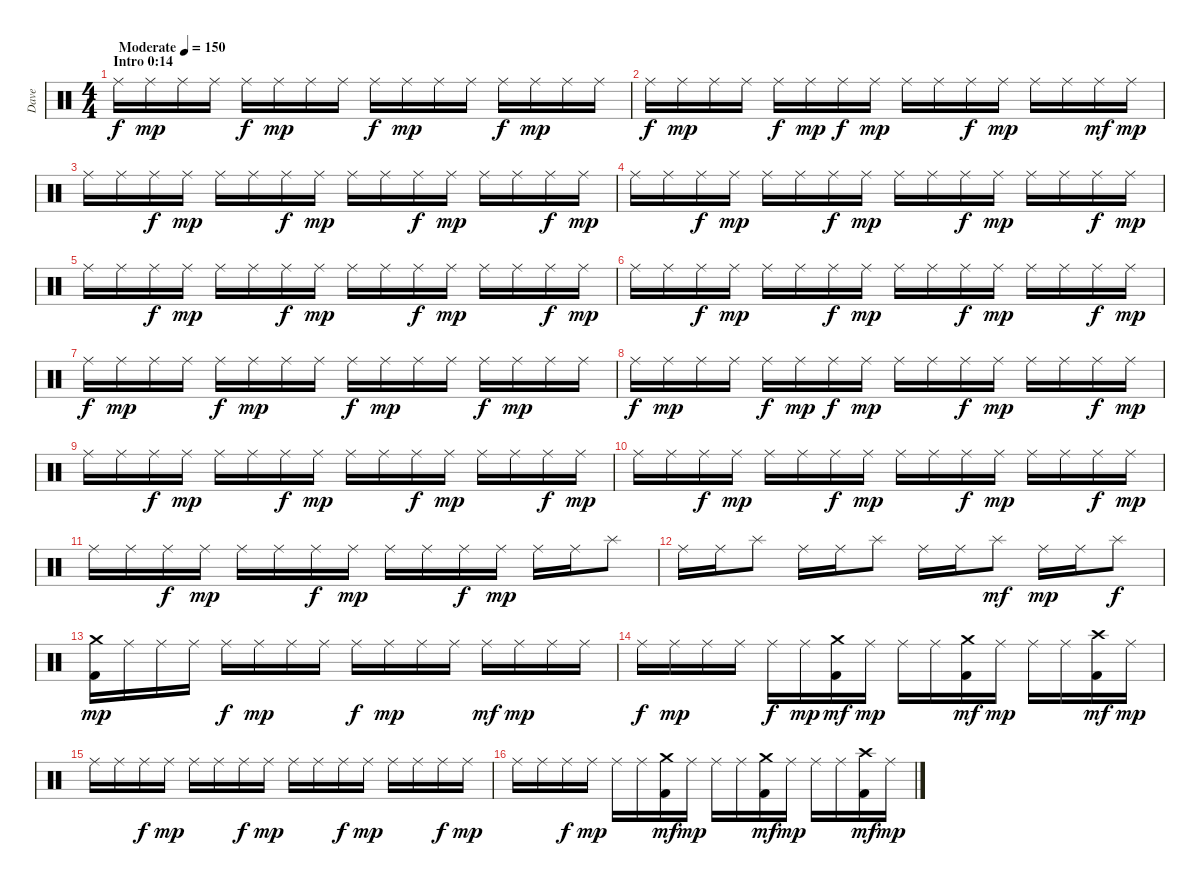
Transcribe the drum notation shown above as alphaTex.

\track ("Dave" "Dave") {instrument percussion}
\staff {score}
\articulation defaults
\ts (4 4)
\section ("" "Intro 0:14")
\tempo (150 "Moderate")
\tempo 139
\tempo (150 "Moderate")
\clef neutral
\ks c "Ride (middle)".16{dy f volume 16} "Ride (middle)".16{dy mp} "Ride (middle)".16 "Ride (middle)".16 "Ride (middle)".16{dy f} "Ride (middle)".16{dy mp} "Ride (middle)".16 "Ride (middle)".16 "Ride (middle)".16{dy f} "Ride (middle)".16{dy mp} "Ride (middle)".16 "Ride (middle)".16 "Ride (middle)".16{dy f} "Ride (middle)".16{dy mp} "Ride (middle)".16 "Ride (middle)".16
|
"Ride (middle)".16{dy f} "Ride (middle)".16{dy mp} "Ride (middle)".16 "Ride (middle)".16 "Ride (middle)".16{dy f} "Ride (middle)".16{dy mp} "Ride (middle)".16{dy f} "Ride (middle)".16{dy mp} "Ride (middle)".16 "Ride (middle)".16 "Ride (middle)".16{dy f} "Ride (middle)".16{dy mp} "Ride (middle)".16 "Ride (middle)".16 "Ride (middle)".16{dy mf} "Ride (middle)".16{dy mp} |
"Ride (middle)".16 "Ride (middle)".16 "Ride (middle)".16{dy f} "Ride (middle)".16{dy mp} "Ride (middle)".16 "Ride (middle)".16 "Ride (middle)".16{dy f} "Ride (middle)".16{dy mp} "Ride (middle)".16 "Ride (middle)".16 "Ride (middle)".16{dy f} "Ride (middle)".16{dy mp} "Ride (middle)".16 "Ride (middle)".16 "Ride (middle)".16{dy f} "Ride (middle)".16{dy mp} |
"Ride (middle)".16 "Ride (middle)".16 "Ride (middle)".16{dy f} "Ride (middle)".16{dy mp} "Ride (middle)".16 "Ride (middle)".16 "Ride (middle)".16{dy f} "Ride (middle)".16{dy mp} "Ride (middle)".16 "Ride (middle)".16 "Ride (middle)".16{dy f} "Ride (middle)".16{dy mp} "Ride (middle)".16 "Ride (middle)".16 "Ride (middle)".16{dy f} "Ride (middle)".16{dy mp} |
"Ride (middle)".16 "Ride (middle)".16 "Ride (middle)".16{dy f} "Ride (middle)".16{dy mp} "Ride (middle)".16 "Ride (middle)".16 "Ride (middle)".16{dy f} "Ride (middle)".16{dy mp} "Ride (middle)".16 "Ride (middle)".16 "Ride (middle)".16{dy f} "Ride (middle)".16{dy mp} "Ride (middle)".16 "Ride (middle)".16 "Ride (middle)".16{dy f} "Ride (middle)".16{dy mp} |
"Ride (middle)".16 "Ride (middle)".16 "Ride (middle)".16{dy f} "Ride (middle)".16{dy mp} "Ride (middle)".16 "Ride (middle)".16 "Ride (middle)".16{dy f} "Ride (middle)".16{dy mp} "Ride (middle)".16 "Ride (middle)".16 "Ride (middle)".16{dy f} "Ride (middle)".16{dy mp} "Ride (middle)".16 "Ride (middle)".16 "Ride (middle)".16{dy f} "Ride (middle)".16{dy mp} |
"Ride (middle)".16{dy f} "Ride (middle)".16{dy mp} "Ride (middle)".16 "Ride (middle)".16 "Ride (middle)".16{dy f} "Ride (middle)".16{dy mp} "Ride (middle)".16 "Ride (middle)".16 "Ride (middle)".16{dy f} "Ride (middle)".16{dy mp} "Ride (middle)".16 "Ride (middle)".16 "Ride (middle)".16{dy f} "Ride (middle)".16{dy mp} "Ride (middle)".16 "Ride (middle)".16 |
"Ride (middle)".16{dy f} "Ride (middle)".16{dy mp} "Ride (middle)".16 "Ride (middle)".16 "Ride (middle)".16{dy f} "Ride (middle)".16{dy mp} "Ride (middle)".16{dy f} "Ride (middle)".16{dy mp} "Ride (middle)".16 "Ride (middle)".16 "Ride (middle)".16{dy f} "Ride (middle)".16{dy mp} "Ride (middle)".16 "Ride (middle)".16 "Ride (middle)".16{dy f} "Ride (middle)".16{dy mp} |
"Ride (middle)".16 "Ride (middle)".16 "Ride (middle)".16{dy f} "Ride (middle)".16{dy mp} "Ride (middle)".16 "Ride (middle)".16 "Ride (middle)".16{dy f} "Ride (middle)".16{dy mp} "Ride (middle)".16 "Ride (middle)".16 "Ride (middle)".16{dy f} "Ride (middle)".16{dy mp} "Ride (middle)".16 "Ride (middle)".16 "Ride (middle)".16{dy f} "Ride (middle)".16{dy mp} |
"Ride (middle)".16 "Ride (middle)".16 "Ride (middle)".16{dy f} "Ride (middle)".16{dy mp} "Ride (middle)".16 "Ride (middle)".16 "Ride (middle)".16{dy f} "Ride (middle)".16{dy mp} "Ride (middle)".16 "Ride (middle)".16 "Ride (middle)".16{dy f} "Ride (middle)".16{dy mp} "Ride (middle)".16 "Ride (middle)".16 "Ride (middle)".16{dy f} "Ride (middle)".16{dy mp} |
"Ride (middle)".16 "Ride (middle)".16 "Ride (middle)".16{dy f} "Ride (middle)".16{dy mp} "Ride (middle)".16 "Ride (middle)".16 "Ride (middle)".16{dy f} "Ride (middle)".16{dy mp} "Ride (middle)".16 "Ride (middle)".16 "Ride (middle)".16{dy f} "Ride (middle)".16{dy mp} "Ride (middle)".16 "Ride (middle)".16 "Splash (hit)".8 |
"Ride (middle)".16 "Ride (middle)".16 "Splash (hit)".8 "Ride (middle)".16 "Ride (middle)".16 "Splash (hit)".8 "Ride (middle)".16 "Ride (middle)".16 "Splash (hit)".8{dy mf} "Ride (middle)".16{dy mp} "Ride (middle)".16 "Splash (hit)".8{dy f} |
("Crash medium (hit)" "Kick (hit) 2").16{dy mp} "Ride (middle)".16 "Ride (middle)".16 "Ride (middle)".16 "Ride (middle)".16{dy f} "Ride (middle)".16{dy mp} "Ride (middle)".16 "Ride (middle)".16 "Ride (middle)".16{dy f} "Ride (middle)".16{dy mp} "Ride (middle)".16 "Ride (middle)".16 "Ride (middle)".16{dy mf} "Ride (middle)".16{dy mp} "Ride (middle)".16 "Ride (middle)".16 |
"Ride (middle)".16{dy f} "Ride (middle)".16{dy mp} "Ride (middle)".16 "Ride (middle)".16 "Ride (middle)".16{dy f} "Ride (middle)".16{dy mp} ("Crash medium (hit)" "Kick (hit) 2").16{dy mf} "Ride (middle)".16{dy mp} "Ride (middle)".16 "Ride (middle)".16 ("Crash medium (hit)" "Kick (hit) 2").16{dy mf} "Ride (middle)".16{dy mp} "Ride (middle)".16 "Ride (middle)".16 ("Crash high (hit)" "Kick (hit) 2").16{dy mf} "Ride (middle)".16{dy mp} |
"Ride (middle)".16 "Ride (middle)".16 "Ride (middle)".16{dy f} "Ride (middle)".16{dy mp} "Ride (middle)".16 "Ride (middle)".16 "Ride (middle)".16{dy f} "Ride (middle)".16{dy mp} "Ride (middle)".16 "Ride (middle)".16 "Ride (middle)".16{dy f} "Ride (middle)".16{dy mp} "Ride (middle)".16 "Ride (middle)".16 "Ride (middle)".16{dy f} "Ride (middle)".16{dy mp} |
"Ride (middle)".16 "Ride (middle)".16 "Ride (middle)".16{dy f} "Ride (middle)".16{dy mp} "Ride (middle)".16 "Ride (middle)".16 ("Crash medium (hit)" "Kick (hit) 2").16{dy mf} "Ride (middle)".16{dy mp} "Ride (middle)".16 "Ride (middle)".16 ("Crash medium (hit)" "Kick (hit) 2").16{dy mf} "Ride (middle)".16{dy mp} "Ride (middle)".16 "Ride (middle)".16 ("Crash high (hit)" "Kick (hit) 2").16{dy mf} "Ride (middle)".16{dy mp}
